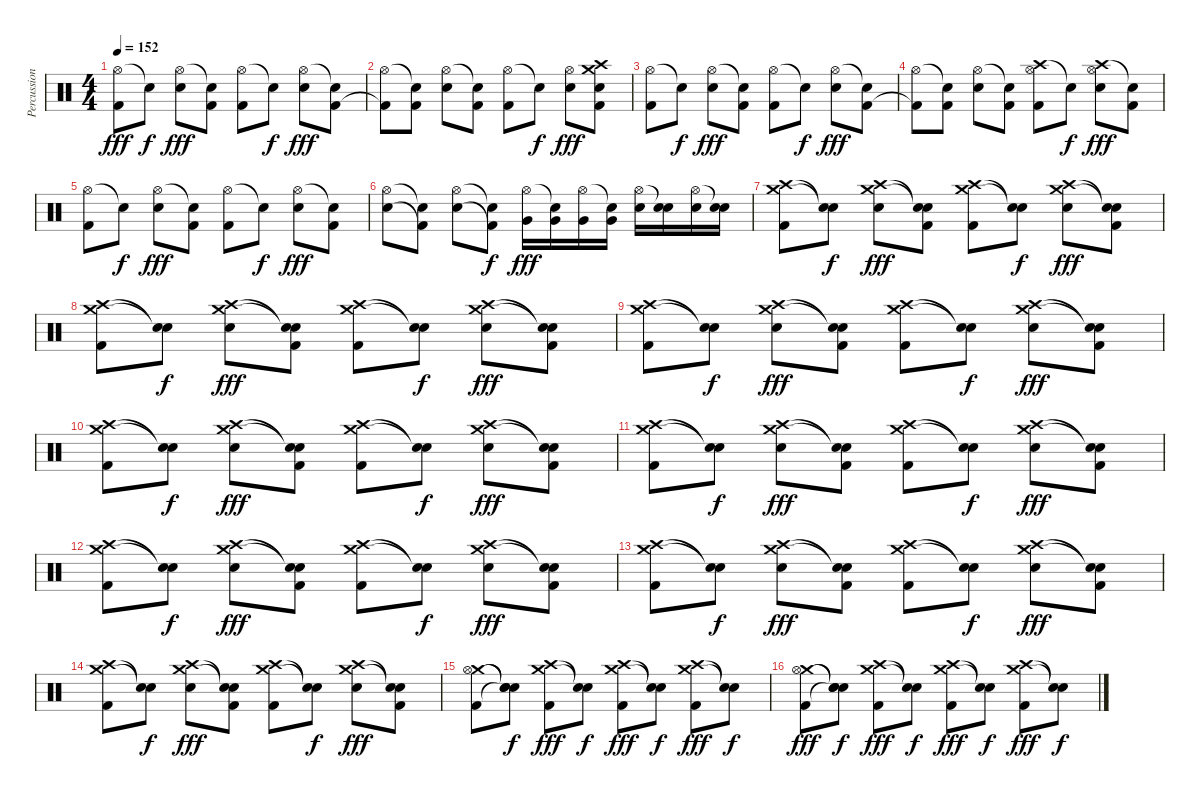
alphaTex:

\track ("Percussion" "Percussion") {instrument percussion}
\staff {score}
\articulation defaults
\ts (4 4)
\tempo 152
\clef neutral
\ks c
("Hi-Hat (open)" "Kick (hit) 2").8{dy fff} "Snare (hit)"{t}.8{dy f} ("Hi-Hat (open)" "Electric Snare (hit)").8{dy fff} ("Snare (hit)"{t} "Kick (hit) 2").8 ("Hi-Hat (open)" "Kick (hit) 2").8 "Snare (hit)"{t}.8{dy f} ("Hi-Hat (open)" "Electric Snare (hit)").8{dy fff} ("Snare (hit)"{t} "Kick (hit) 2").8 |
("Hi-Hat (open)" "Kick (hit) 2"{t}).8 ("Snare (hit)"{t} "Kick (hit) 2").8 ("Hi-Hat (open)" "Electric Snare (hit)").8 ("Snare (hit)"{t} "Kick (hit) 2").8 ("Hi-Hat (open)" "Kick (hit) 2").8 "Snare (hit)"{t}.8{dy f} ("Hi-Hat (open)" "Electric Snare (hit)").8{dy fff} ("Crash medium (hit)" "Crash high (hit)" "Snare (hit)"{t} "Kick (hit) 2").8 |
("Hi-Hat (open)" "Kick (hit) 2").8 "Snare (hit)"{t}.8{dy f} ("Hi-Hat (open)" "Electric Snare (hit)").8{dy fff} ("Snare (hit)"{t} "Kick (hit) 2").8 ("Hi-Hat (open)" "Kick (hit) 2").8 "Snare (hit)"{t}.8{dy f} ("Hi-Hat (open)" "Electric Snare (hit)").8{dy fff} ("Snare (hit)"{t} "Kick (hit) 2").8 |
("Hi-Hat (open)" "Kick (hit) 2"{t}).8 ("Snare (hit)"{t} "Kick (hit) 2").8 ("Hi-Hat (open)" "Electric Snare (hit)").8 ("Snare (hit)"{t} "Kick (hit) 2").8 ("Crash high (hit)" "Hi-Hat (open)" "Kick (hit) 2").8 "Snare (hit)"{t}.8{dy f} ("Crash high (hit)" "Hi-Hat (open)" "Electric Snare (hit)").8{dy fff} ("Snare (hit)"{t} "Kick (hit) 2").8 |
("Hi-Hat (open)" "Kick (hit) 2").8 "Snare (hit)"{t}.8{dy f} ("Hi-Hat (open)" "Electric Snare (hit)").8{dy fff} ("Snare (hit)"{t} "Kick (hit) 2").8 ("Hi-Hat (open)" "Kick (hit) 2").8 "Snare (hit)"{t}.8{dy f} ("Hi-Hat (open)" "Electric Snare (hit)").8{dy fff} ("Snare (hit)"{t} "Kick (hit) 2").8 |
("Hi-Hat (open)" "Electric Snare (hit)").8 ("Snare (hit)"{t} "Kick (hit) 2"{t}).8 ("Hi-Hat (open)" "Electric Snare (hit)").8 ("Snare (hit)"{t} "Kick (hit) 2"{t}).8{dy f} ("Hi-Hat (open)" "Very Low Tom (hit)").16{dy fff} ("Snare (hit)"{t} "Very Low Tom (hit)").16 ("Hi-Hat (open)" "Very Low Tom (hit)").16 ("Snare (hit)"{t} "Very Low Tom (hit)").16 ("Hi-Hat (open)" "Electric Snare (hit)").16 ("Snare (hit)"{t} "Electric Snare (hit)").16 ("Hi-Hat (open)" "Electric Snare (hit)").16 ("Snare (hit)"{t} "Electric Snare (hit)").16 |
("Crash medium (hit)" "Crash high (hit)" "Kick (hit) 2").8 ("Snare (hit)"{t} "Snare (hit)"{t}).8{dy f} ("Crash medium (hit)" "Crash high (hit)" "Electric Snare (hit)").8{dy fff} ("Snare (hit)"{t} "Snare (hit)"{t} "Kick (hit) 2").8 ("Crash medium (hit)" "Crash high (hit)" "Kick (hit) 2").8 ("Snare (hit)"{t} "Snare (hit)"{t}).8{dy f} ("Crash medium (hit)" "Crash high (hit)" "Electric Snare (hit)").8{dy fff} ("Snare (hit)"{t} "Snare (hit)"{t} "Kick (hit) 2").8 |
("Crash medium (hit)" "Crash high (hit)" "Kick (hit) 2").8 ("Snare (hit)"{t} "Snare (hit)"{t}).8{dy f} ("Crash medium (hit)" "Crash high (hit)" "Electric Snare (hit)").8{dy fff} ("Snare (hit)"{t} "Snare (hit)"{t} "Kick (hit) 2").8 ("Crash medium (hit)" "Crash high (hit)" "Kick (hit) 2").8 ("Snare (hit)"{t} "Snare (hit)"{t}).8{dy f} ("Crash medium (hit)" "Crash high (hit)" "Electric Snare (hit)").8{dy fff} ("Snare (hit)"{t} "Snare (hit)"{t} "Kick (hit) 2").8 |
("Crash medium (hit)" "Crash high (hit)" "Kick (hit) 2").8 ("Snare (hit)"{t} "Snare (hit)"{t}).8{dy f} ("Crash medium (hit)" "Crash high (hit)" "Electric Snare (hit)").8{dy fff} ("Snare (hit)"{t} "Snare (hit)"{t} "Kick (hit) 2").8 ("Crash medium (hit)" "Crash high (hit)" "Kick (hit) 2").8 ("Snare (hit)"{t} "Snare (hit)"{t}).8{dy f} ("Crash medium (hit)" "Crash high (hit)" "Electric Snare (hit)").8{dy fff} ("Snare (hit)"{t} "Snare (hit)"{t} "Kick (hit) 2").8 |
("Crash medium (hit)" "Crash high (hit)" "Kick (hit) 2").8 ("Snare (hit)"{t} "Snare (hit)"{t}).8{dy f} ("Crash medium (hit)" "Crash high (hit)" "Electric Snare (hit)").8{dy fff} ("Snare (hit)"{t} "Snare (hit)"{t} "Kick (hit) 2").8 ("Crash medium (hit)" "Crash high (hit)" "Kick (hit) 2").8 ("Snare (hit)"{t} "Snare (hit)"{t}).8{dy f} ("Crash medium (hit)" "Crash high (hit)" "Electric Snare (hit)").8{dy fff} ("Snare (hit)"{t} "Snare (hit)"{t} "Kick (hit) 2").8 |
("Crash medium (hit)" "Crash high (hit)" "Kick (hit) 2").8 ("Snare (hit)"{t} "Snare (hit)"{t}).8{dy f} ("Crash medium (hit)" "Crash high (hit)" "Electric Snare (hit)").8{dy fff} ("Snare (hit)"{t} "Snare (hit)"{t} "Kick (hit) 2").8 ("Crash medium (hit)" "Crash high (hit)" "Kick (hit) 2").8 ("Snare (hit)"{t} "Snare (hit)"{t}).8{dy f} ("Crash medium (hit)" "Crash high (hit)" "Electric Snare (hit)").8{dy fff} ("Snare (hit)"{t} "Snare (hit)"{t} "Kick (hit) 2").8 |
("Crash medium (hit)" "Crash high (hit)" "Kick (hit) 2").8 ("Snare (hit)"{t} "Snare (hit)"{t}).8{dy f} ("Crash medium (hit)" "Crash high (hit)" "Electric Snare (hit)").8{dy fff} ("Snare (hit)"{t} "Snare (hit)"{t} "Kick (hit) 2").8 ("Crash medium (hit)" "Crash high (hit)" "Kick (hit) 2").8 ("Snare (hit)"{t} "Snare (hit)"{t}).8{dy f} ("Crash medium (hit)" "Crash high (hit)" "Electric Snare (hit)").8{dy fff} ("Snare (hit)"{t} "Snare (hit)"{t} "Kick (hit) 2").8 |
("Crash medium (hit)" "Crash high (hit)" "Kick (hit) 2").8 ("Snare (hit)"{t} "Snare (hit)"{t}).8{dy f} ("Crash medium (hit)" "Crash high (hit)" "Electric Snare (hit)").8{dy fff} ("Snare (hit)"{t} "Snare (hit)"{t} "Kick (hit) 2").8 ("Crash medium (hit)" "Crash high (hit)" "Kick (hit) 2").8 ("Snare (hit)"{t} "Snare (hit)"{t}).8{dy f} ("Crash medium (hit)" "Crash high (hit)" "Electric Snare (hit)").8{dy fff} ("Snare (hit)"{t} "Snare (hit)"{t} "Kick (hit) 2").8 |
("Crash medium (hit)" "Crash high (hit)" "Kick (hit) 2").8 ("Snare (hit)"{t} "Snare (hit)"{t}).8{dy f} ("Crash medium (hit)" "Crash high (hit)" "Electric Snare (hit)").8{dy fff} ("Snare (hit)"{t} "Snare (hit)"{t} "Kick (hit) 2").8 ("Crash medium (hit)" "Crash high (hit)" "Kick (hit) 2").8 ("Snare (hit)"{t} "Snare (hit)"{t}).8{dy f} ("Crash medium (hit)" "Crash high (hit)" "Electric Snare (hit)").8{dy fff} ("Snare (hit)"{t} "Snare (hit)"{t} "Kick (hit) 2").8 |
("Crash medium (hit)" "Hi-Hat (open)" "Kick (hit) 2").8 ("Snare (hit)"{t} "Snare (hit)"{t} "Snare (hit)"{t}).8{dy f} ("Crash medium (hit)" "Crash high (hit)" "Kick (hit) 2").8{dy fff} ("Snare (hit)"{t} "Snare (hit)"{t}).8{dy f} ("Crash medium (hit)" "Crash high (hit)" "Kick (hit) 2").8{dy fff} ("Snare (hit)"{t} "Snare (hit)"{t}).8{dy f} ("Crash medium (hit)" "Crash high (hit)" "Kick (hit) 2").8{dy fff} ("Snare (hit)"{t} "Snare (hit)"{t}).8{dy f} |
("Crash medium (hit)" "Hi-Hat (open)" "Kick (hit) 2").8{dy fff} ("Snare (hit)"{t} "Snare (hit)"{t} "Snare (hit)"{t}).8{dy f} ("Crash medium (hit)" "Crash high (hit)" "Kick (hit) 2").8{dy fff} ("Snare (hit)"{t} "Snare (hit)"{t}).8{dy f} ("Crash medium (hit)" "Crash high (hit)" "Kick (hit) 2").8{dy fff} ("Snare (hit)"{t} "Snare (hit)"{t}).8{dy f} ("Crash medium (hit)" "Crash high (hit)" "Kick (hit) 2").8{dy fff} ("Snare (hit)"{t} "Snare (hit)"{t}).8{dy f}
